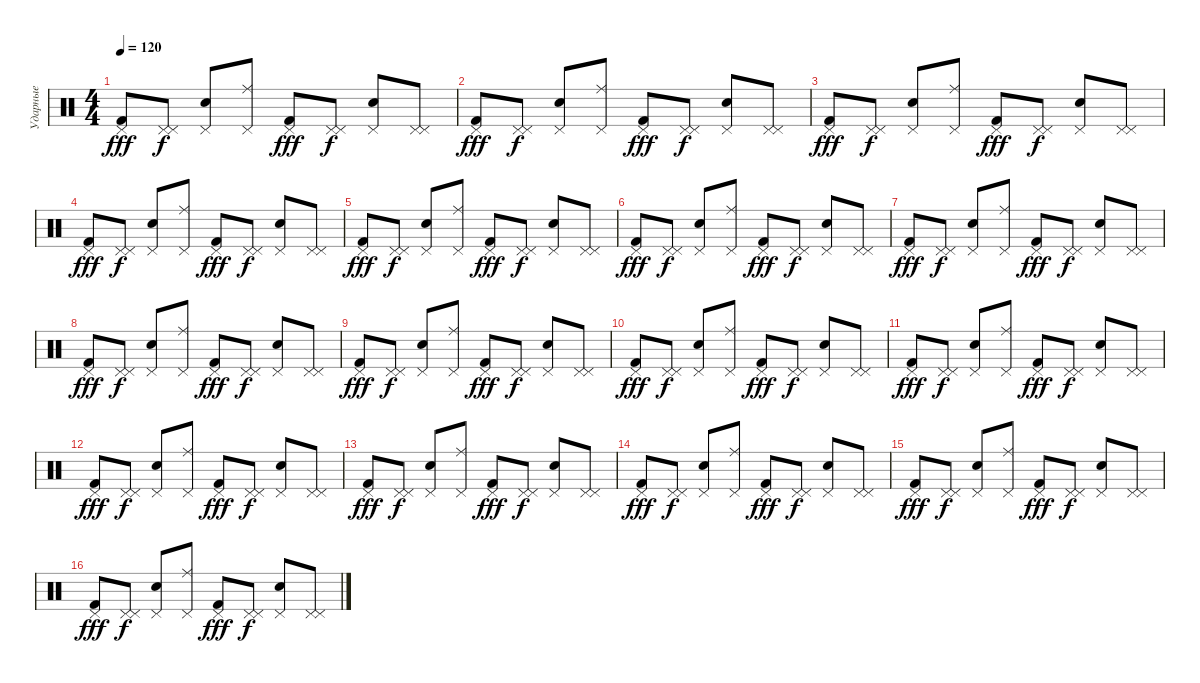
\track ("Ударные" "Ударные") {instrument percussion}
\staff {score}
\articulation defaults
\ts (4 4)
\tempo 120
\clef neutral
\ks c
("Pedal Hi-Hat (hit)" "Kick (hit) 2").8{dy fff} ("Pedal Hi-Hat (hit)" "Pedal Hi-Hat (hit)").8{dy f} ("Pedal Hi-Hat (hit)" "Hand Clap (hit)").8 ("Pedal Hi-Hat (hit)" "Ride (middle)").8 ("Pedal Hi-Hat (hit)" "Kick (hit) 2").8{dy fff} ("Pedal Hi-Hat (hit)" "Pedal Hi-Hat (hit)").8{dy f} ("Pedal Hi-Hat (hit)" "Hand Clap (hit)").8 ("Pedal Hi-Hat (hit)" "Pedal Hi-Hat (hit)").8 |
("Pedal Hi-Hat (hit)" "Kick (hit) 2").8{dy fff} ("Pedal Hi-Hat (hit)" "Pedal Hi-Hat (hit)").8{dy f} ("Pedal Hi-Hat (hit)" "Hand Clap (hit)").8 ("Pedal Hi-Hat (hit)" "Ride (middle)").8 ("Pedal Hi-Hat (hit)" "Kick (hit) 2").8{dy fff} ("Pedal Hi-Hat (hit)" "Pedal Hi-Hat (hit)").8{dy f} ("Pedal Hi-Hat (hit)" "Hand Clap (hit)").8 ("Pedal Hi-Hat (hit)" "Pedal Hi-Hat (hit)").8 |
("Pedal Hi-Hat (hit)" "Kick (hit) 2").8{dy fff} ("Pedal Hi-Hat (hit)" "Pedal Hi-Hat (hit)").8{dy f} ("Pedal Hi-Hat (hit)" "Hand Clap (hit)").8 ("Pedal Hi-Hat (hit)" "Ride (middle)").8 ("Pedal Hi-Hat (hit)" "Kick (hit) 2").8{dy fff} ("Pedal Hi-Hat (hit)" "Pedal Hi-Hat (hit)").8{dy f} ("Pedal Hi-Hat (hit)" "Hand Clap (hit)").8 ("Pedal Hi-Hat (hit)" "Pedal Hi-Hat (hit)").8 |
("Pedal Hi-Hat (hit)" "Kick (hit) 2").8{dy fff} ("Pedal Hi-Hat (hit)" "Pedal Hi-Hat (hit)").8{dy f} ("Pedal Hi-Hat (hit)" "Hand Clap (hit)").8 ("Pedal Hi-Hat (hit)" "Ride (middle)").8 ("Pedal Hi-Hat (hit)" "Kick (hit) 2").8{dy fff} ("Pedal Hi-Hat (hit)" "Pedal Hi-Hat (hit)").8{dy f} ("Pedal Hi-Hat (hit)" "Hand Clap (hit)").8 ("Pedal Hi-Hat (hit)" "Pedal Hi-Hat (hit)").8 |
("Pedal Hi-Hat (hit)" "Kick (hit) 2").8{dy fff} ("Pedal Hi-Hat (hit)" "Pedal Hi-Hat (hit)").8{dy f} ("Pedal Hi-Hat (hit)" "Hand Clap (hit)").8 ("Pedal Hi-Hat (hit)" "Ride (middle)").8 ("Pedal Hi-Hat (hit)" "Kick (hit) 2").8{dy fff} ("Pedal Hi-Hat (hit)" "Pedal Hi-Hat (hit)").8{dy f} ("Pedal Hi-Hat (hit)" "Hand Clap (hit)").8 ("Pedal Hi-Hat (hit)" "Pedal Hi-Hat (hit)").8 |
("Pedal Hi-Hat (hit)" "Kick (hit) 2").8{dy fff} ("Pedal Hi-Hat (hit)" "Pedal Hi-Hat (hit)").8{dy f} ("Pedal Hi-Hat (hit)" "Hand Clap (hit)").8 ("Pedal Hi-Hat (hit)" "Ride (middle)").8 ("Pedal Hi-Hat (hit)" "Kick (hit) 2").8{dy fff} ("Pedal Hi-Hat (hit)" "Pedal Hi-Hat (hit)").8{dy f} ("Pedal Hi-Hat (hit)" "Hand Clap (hit)").8 ("Pedal Hi-Hat (hit)" "Pedal Hi-Hat (hit)").8 |
("Pedal Hi-Hat (hit)" "Kick (hit) 2").8{dy fff} ("Pedal Hi-Hat (hit)" "Pedal Hi-Hat (hit)").8{dy f} ("Pedal Hi-Hat (hit)" "Hand Clap (hit)").8 ("Pedal Hi-Hat (hit)" "Ride (middle)").8 ("Pedal Hi-Hat (hit)" "Kick (hit) 2").8{dy fff} ("Pedal Hi-Hat (hit)" "Pedal Hi-Hat (hit)").8{dy f} ("Pedal Hi-Hat (hit)" "Hand Clap (hit)").8 ("Pedal Hi-Hat (hit)" "Pedal Hi-Hat (hit)").8 |
("Pedal Hi-Hat (hit)" "Kick (hit) 2").8{dy fff} ("Pedal Hi-Hat (hit)" "Pedal Hi-Hat (hit)").8{dy f} ("Pedal Hi-Hat (hit)" "Hand Clap (hit)").8 ("Pedal Hi-Hat (hit)" "Ride (middle)").8 ("Pedal Hi-Hat (hit)" "Kick (hit) 2").8{dy fff} ("Pedal Hi-Hat (hit)" "Pedal Hi-Hat (hit)").8{dy f} ("Pedal Hi-Hat (hit)" "Hand Clap (hit)").8 ("Pedal Hi-Hat (hit)" "Pedal Hi-Hat (hit)").8 |
("Pedal Hi-Hat (hit)" "Kick (hit) 2").8{dy fff} ("Pedal Hi-Hat (hit)" "Pedal Hi-Hat (hit)").8{dy f} ("Pedal Hi-Hat (hit)" "Hand Clap (hit)").8 ("Pedal Hi-Hat (hit)" "Ride (middle)").8 ("Pedal Hi-Hat (hit)" "Kick (hit) 2").8{dy fff} ("Pedal Hi-Hat (hit)" "Pedal Hi-Hat (hit)").8{dy f} ("Pedal Hi-Hat (hit)" "Hand Clap (hit)").8 ("Pedal Hi-Hat (hit)" "Pedal Hi-Hat (hit)").8 |
("Pedal Hi-Hat (hit)" "Kick (hit) 2").8{dy fff} ("Pedal Hi-Hat (hit)" "Pedal Hi-Hat (hit)").8{dy f} ("Pedal Hi-Hat (hit)" "Hand Clap (hit)").8 ("Pedal Hi-Hat (hit)" "Ride (middle)").8 ("Pedal Hi-Hat (hit)" "Kick (hit) 2").8{dy fff} ("Pedal Hi-Hat (hit)" "Pedal Hi-Hat (hit)").8{dy f} ("Pedal Hi-Hat (hit)" "Hand Clap (hit)").8 ("Pedal Hi-Hat (hit)" "Pedal Hi-Hat (hit)").8 |
("Pedal Hi-Hat (hit)" "Kick (hit) 2").8{dy fff} ("Pedal Hi-Hat (hit)" "Pedal Hi-Hat (hit)").8{dy f} ("Pedal Hi-Hat (hit)" "Hand Clap (hit)").8 ("Pedal Hi-Hat (hit)" "Ride (middle)").8 ("Pedal Hi-Hat (hit)" "Kick (hit) 2").8{dy fff} ("Pedal Hi-Hat (hit)" "Pedal Hi-Hat (hit)").8{dy f} ("Pedal Hi-Hat (hit)" "Hand Clap (hit)").8 ("Pedal Hi-Hat (hit)" "Pedal Hi-Hat (hit)").8 |
("Pedal Hi-Hat (hit)" "Kick (hit) 2").8{dy fff} ("Pedal Hi-Hat (hit)" "Pedal Hi-Hat (hit)").8{dy f} ("Pedal Hi-Hat (hit)" "Hand Clap (hit)").8 ("Pedal Hi-Hat (hit)" "Ride (middle)").8 ("Pedal Hi-Hat (hit)" "Kick (hit) 2").8{dy fff} ("Pedal Hi-Hat (hit)" "Pedal Hi-Hat (hit)").8{dy f} ("Pedal Hi-Hat (hit)" "Hand Clap (hit)").8 ("Pedal Hi-Hat (hit)" "Pedal Hi-Hat (hit)").8 |
("Pedal Hi-Hat (hit)" "Kick (hit) 2").8{dy fff} ("Pedal Hi-Hat (hit)" "Pedal Hi-Hat (hit)").8{dy f} ("Pedal Hi-Hat (hit)" "Hand Clap (hit)").8 ("Pedal Hi-Hat (hit)" "Ride (middle)").8 ("Pedal Hi-Hat (hit)" "Kick (hit) 2").8{dy fff} ("Pedal Hi-Hat (hit)" "Pedal Hi-Hat (hit)").8{dy f} ("Pedal Hi-Hat (hit)" "Hand Clap (hit)").8 ("Pedal Hi-Hat (hit)" "Pedal Hi-Hat (hit)").8 |
("Pedal Hi-Hat (hit)" "Kick (hit) 2").8{dy fff} ("Pedal Hi-Hat (hit)" "Pedal Hi-Hat (hit)").8{dy f} ("Pedal Hi-Hat (hit)" "Hand Clap (hit)").8 ("Pedal Hi-Hat (hit)" "Ride (middle)").8 ("Pedal Hi-Hat (hit)" "Kick (hit) 2").8{dy fff} ("Pedal Hi-Hat (hit)" "Pedal Hi-Hat (hit)").8{dy f} ("Pedal Hi-Hat (hit)" "Hand Clap (hit)").8 ("Pedal Hi-Hat (hit)" "Pedal Hi-Hat (hit)").8 |
("Pedal Hi-Hat (hit)" "Kick (hit) 2").8{dy fff} ("Pedal Hi-Hat (hit)" "Pedal Hi-Hat (hit)").8{dy f} ("Pedal Hi-Hat (hit)" "Hand Clap (hit)").8 ("Pedal Hi-Hat (hit)" "Ride (middle)").8 ("Pedal Hi-Hat (hit)" "Kick (hit) 2").8{dy fff} ("Pedal Hi-Hat (hit)" "Pedal Hi-Hat (hit)").8{dy f} ("Pedal Hi-Hat (hit)" "Hand Clap (hit)").8 ("Pedal Hi-Hat (hit)" "Pedal Hi-Hat (hit)").8 |
("Pedal Hi-Hat (hit)" "Kick (hit) 2").8{dy fff} ("Pedal Hi-Hat (hit)" "Pedal Hi-Hat (hit)").8{dy f} ("Pedal Hi-Hat (hit)" "Hand Clap (hit)").8 ("Pedal Hi-Hat (hit)" "Ride (middle)").8 ("Pedal Hi-Hat (hit)" "Kick (hit) 2").8{dy fff} ("Pedal Hi-Hat (hit)" "Pedal Hi-Hat (hit)").8{dy f} ("Pedal Hi-Hat (hit)" "Hand Clap (hit)").8 ("Pedal Hi-Hat (hit)" "Pedal Hi-Hat (hit)").8
